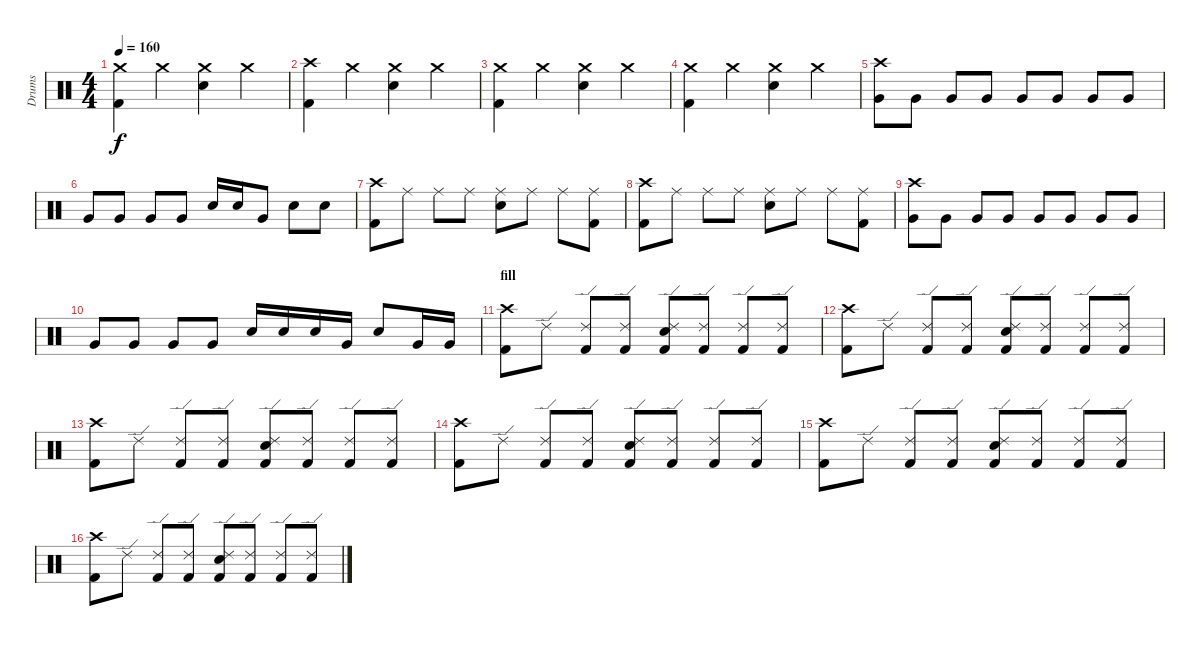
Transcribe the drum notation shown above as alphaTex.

\track ("Drums" "Drums") {instrument percussion}
\staff {score}
\articulation defaults
\ts (4 4)
\tempo 160
\clef neutral
\ks c
("Crash medium (hit)" "Kick (hit) 2").4{dy f} "Crash medium (hit)".4 ("Crash medium (hit)" "Snare (hit) 2").4 "Crash medium (hit)".4 |
("Crash high (hit)" "Kick (hit) 2").4 "Crash medium (hit)".4 ("Crash medium (hit)" "Snare (hit) 2").4 "Crash medium (hit)".4 |
("Crash medium (hit)" "Kick (hit) 2").4 "Crash medium (hit)".4 ("Crash medium (hit)" "Snare (hit) 2").4 "Crash medium (hit)".4 |
("Crash medium (hit)" "Kick (hit) 2").4 "Crash medium (hit)".4 ("Crash medium (hit)" "Snare (hit) 2").4 "Crash medium (hit)".4 |
("Crash high (hit)" "Very Low Tom (hit)").8 "Very Low Tom (hit)".8 "Very Low Tom (hit)".8 "Very Low Tom (hit)".8 "Very Low Tom (hit)".8 "Very Low Tom (hit)".8 "Very Low Tom (hit)".8 "Very Low Tom (hit)".8 |
"Very Low Tom (hit)".8 "Very Low Tom (hit)".8 "Very Low Tom (hit)".8 "Very Low Tom (hit)".8 "Snare (hit) 2".16 "Snare (hit) 2".16 "Very Low Tom (hit)".8 "Snare (hit) 2".8 "Snare (hit) 2".8 |
("Crash high (hit)" "Kick (hit) 2").8 "Ride (middle)".8 "Ride (middle)".8 "Ride (middle)".8 ("Ride (middle)" "Snare (hit) 2").8 "Ride (middle)".8 "Ride (middle)".8 ("Ride (middle)" "Kick (hit) 2").8 |
("Crash high (hit)" "Kick (hit) 2").8 "Ride (middle)".8 "Ride (middle)".8 "Ride (middle)".8 ("Ride (middle)" "Snare (hit) 2").8 "Ride (middle)".8 "Ride (middle)".8 ("Ride (middle)" "Kick (hit) 2").8 |
("Crash high (hit)" "Very Low Tom (hit)").8 "Very Low Tom (hit)".8 "Very Low Tom (hit)".8 "Very Low Tom (hit)".8 "Very Low Tom (hit)".8 "Very Low Tom (hit)".8 "Very Low Tom (hit)".8 "Very Low Tom (hit)".8 |
"Very Low Tom (hit)".8 "Very Low Tom (hit)".8 "Very Low Tom (hit)".8 "Very Low Tom (hit)".8 "Snare (hit) 2".16 "Snare (hit) 2".16 "Snare (hit) 2".16 "Very Low Tom (hit)".16 "Snare (hit) 2".8 "Very Low Tom (hit)".16 "Very Low Tom (hit)".16 |
\section ("" "fill")
("Crash high (hit)" "Kick (hit) 2").8 "Ride (edge) 2".8 ("Ride (edge) 2" "Kick (hit) 2").8 ("Ride (edge) 2" "Kick (hit) 2").8 ("Ride (edge) 2" "Snare (hit) 2" "Kick (hit) 2").8 ("Ride (edge) 2" "Kick (hit) 2").8 ("Ride (edge) 2" "Kick (hit) 2").8 ("Ride (edge) 2" "Kick (hit) 2").8 |
("Crash high (hit)" "Kick (hit) 2").8 "Ride (edge) 2".8 ("Ride (edge) 2" "Kick (hit) 2").8 ("Ride (edge) 2" "Kick (hit) 2").8 ("Ride (edge) 2" "Snare (hit) 2" "Kick (hit) 2").8 ("Ride (edge) 2" "Kick (hit) 2").8 ("Ride (edge) 2" "Kick (hit) 2").8 ("Ride (edge) 2" "Kick (hit) 2").8 |
("Crash high (hit)" "Kick (hit) 2").8 "Ride (edge) 2".8 ("Ride (edge) 2" "Kick (hit) 2").8 ("Ride (edge) 2" "Kick (hit) 2").8 ("Ride (edge) 2" "Snare (hit) 2" "Kick (hit) 2").8 ("Ride (edge) 2" "Kick (hit) 2").8 ("Ride (edge) 2" "Kick (hit) 2").8 ("Ride (edge) 2" "Kick (hit) 2").8 |
("Crash high (hit)" "Kick (hit) 2").8 "Ride (edge) 2".8 ("Ride (edge) 2" "Kick (hit) 2").8 ("Ride (edge) 2" "Kick (hit) 2").8 ("Ride (edge) 2" "Snare (hit) 2" "Kick (hit) 2").8 ("Ride (edge) 2" "Kick (hit) 2").8 ("Ride (edge) 2" "Kick (hit) 2").8 ("Ride (edge) 2" "Kick (hit) 2").8 |
("Crash high (hit)" "Kick (hit) 2").8 "Ride (edge) 2".8 ("Ride (edge) 2" "Kick (hit) 2").8 ("Ride (edge) 2" "Kick (hit) 2").8 ("Ride (edge) 2" "Snare (hit) 2" "Kick (hit) 2").8 ("Ride (edge) 2" "Kick (hit) 2").8 ("Ride (edge) 2" "Kick (hit) 2").8 ("Ride (edge) 2" "Kick (hit) 2").8 |
("Crash high (hit)" "Kick (hit) 2").8 "Ride (edge) 2".8 ("Ride (edge) 2" "Kick (hit) 2").8 ("Ride (edge) 2" "Kick (hit) 2").8 ("Ride (edge) 2" "Snare (hit) 2" "Kick (hit) 2").8 ("Ride (edge) 2" "Kick (hit) 2").8 ("Ride (edge) 2" "Kick (hit) 2").8 ("Ride (edge) 2" "Kick (hit) 2").8
